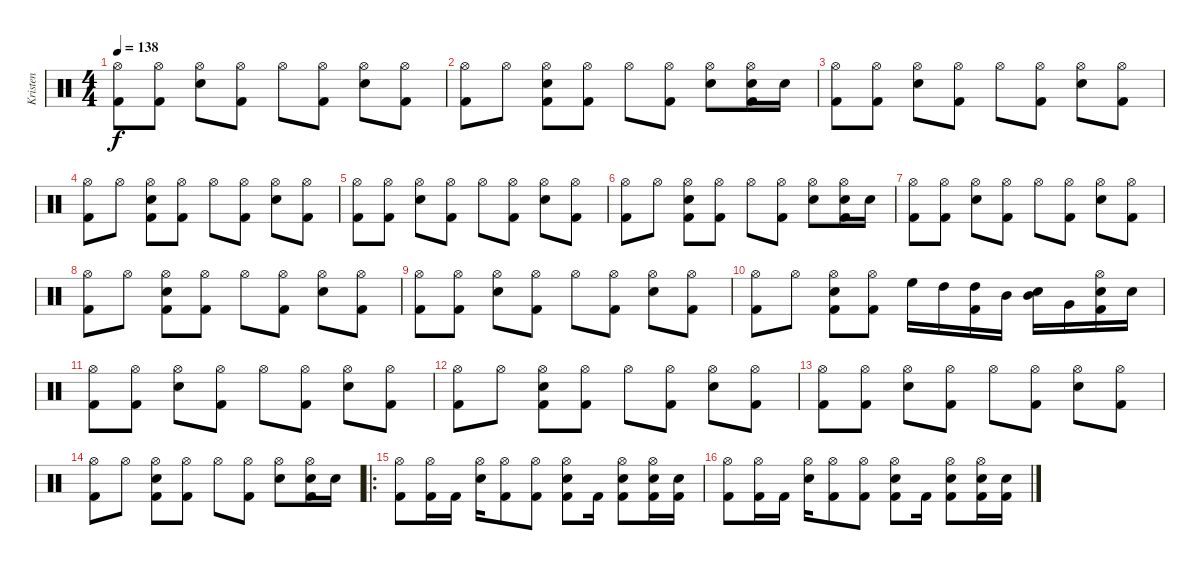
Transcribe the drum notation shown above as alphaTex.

\track ("Kristen" "Kristen") {instrument percussion}
\staff {score}
\articulation defaults
\ts (4 4)
\tempo 138
\clef neutral
\ks c
("Hi-Hat (open)" "Kick (hit) 2").8{dy f} ("Hi-Hat (open)" "Kick (hit) 2").8 ("Hi-Hat (open)" "Snare (hit) 2").8 ("Hi-Hat (open)" "Kick (hit) 2").8 "Hi-Hat (open)".8 ("Hi-Hat (open)" "Kick (hit) 2").8 ("Hi-Hat (open)" "Snare (hit) 2").8 ("Hi-Hat (open)" "Kick (hit) 2").8 |
("Hi-Hat (open)" "Kick (hit) 2").8 "Hi-Hat (open)".8 ("Hi-Hat (open)" "Snare (hit) 2" "Kick (hit) 2").8 ("Hi-Hat (open)" "Kick (hit) 2").8 "Hi-Hat (open)".8 ("Hi-Hat (open)" "Kick (hit) 2").8 ("Hi-Hat (open)" "Snare (hit) 2").8 ("Hi-Hat (open)" "Snare (hit) 2" "Kick (hit) 2").16 "Snare (hit) 2".16 |
("Hi-Hat (open)" "Kick (hit) 2").8 ("Hi-Hat (open)" "Kick (hit) 2").8 ("Hi-Hat (open)" "Snare (hit) 2").8 ("Hi-Hat (open)" "Kick (hit) 2").8 "Hi-Hat (open)".8 ("Hi-Hat (open)" "Kick (hit) 2").8 ("Hi-Hat (open)" "Snare (hit) 2").8 ("Hi-Hat (open)" "Kick (hit) 2").8 |
("Hi-Hat (open)" "Kick (hit) 2").8 "Hi-Hat (open)".8 ("Hi-Hat (open)" "Snare (hit) 2" "Kick (hit) 2").8 ("Hi-Hat (open)" "Kick (hit) 2").8 "Hi-Hat (open)".8 ("Hi-Hat (open)" "Kick (hit) 2").8 ("Hi-Hat (open)" "Snare (hit) 2").8 ("Hi-Hat (open)" "Kick (hit) 2").8 |
("Hi-Hat (open)" "Kick (hit) 2").8 ("Hi-Hat (open)" "Kick (hit) 2").8 ("Hi-Hat (open)" "Snare (hit) 2").8 ("Hi-Hat (open)" "Kick (hit) 2").8 "Hi-Hat (open)".8 ("Hi-Hat (open)" "Kick (hit) 2").8 ("Hi-Hat (open)" "Snare (hit) 2").8 ("Hi-Hat (open)" "Kick (hit) 2").8 |
("Hi-Hat (open)" "Kick (hit) 2").8 "Hi-Hat (open)".8 ("Hi-Hat (open)" "Snare (hit) 2" "Kick (hit) 2").8 ("Hi-Hat (open)" "Kick (hit) 2").8 "Hi-Hat (open)".8 ("Hi-Hat (open)" "Kick (hit) 2").8 ("Hi-Hat (open)" "Snare (hit) 2").8 ("Hi-Hat (open)" "Snare (hit) 2" "Kick (hit) 2").16 "Snare (hit) 2".16 |
("Hi-Hat (open)" "Kick (hit) 2").8 ("Hi-Hat (open)" "Kick (hit) 2").8 ("Hi-Hat (open)" "Snare (hit) 2").8 ("Hi-Hat (open)" "Kick (hit) 2").8 "Hi-Hat (open)".8 ("Hi-Hat (open)" "Kick (hit) 2").8 ("Hi-Hat (open)" "Snare (hit) 2").8 ("Hi-Hat (open)" "Kick (hit) 2").8 |
("Hi-Hat (open)" "Kick (hit) 2").8 "Hi-Hat (open)".8 ("Hi-Hat (open)" "Snare (hit) 2" "Kick (hit) 2").8 ("Hi-Hat (open)" "Kick (hit) 2").8 "Hi-Hat (open)".8 ("Hi-Hat (open)" "Kick (hit) 2").8 ("Hi-Hat (open)" "Snare (hit) 2").8 ("Hi-Hat (open)" "Kick (hit) 2").8 |
("Hi-Hat (open)" "Kick (hit) 2").8 ("Hi-Hat (open)" "Kick (hit) 2").8 ("Hi-Hat (open)" "Snare (hit) 2").8 ("Hi-Hat (open)" "Kick (hit) 2").8 "Hi-Hat (open)".8 ("Hi-Hat (open)" "Kick (hit) 2").8 ("Hi-Hat (open)" "Snare (hit) 2").8 ("Hi-Hat (open)" "Kick (hit) 2").8 |
("Hi-Hat (open)" "Kick (hit) 2").8 "Hi-Hat (open)".8 ("Hi-Hat (open)" "Snare (hit) 2" "Kick (hit) 2").8 ("Hi-Hat (open)" "Kick (hit) 2").8 "High Floor Tom (hit)".16 "High Tom (hit)".16 ("High Tom (hit)" "Kick (hit) 2").16 "Mid Tom (hit)".16 ("Mid Tom (hit)" "Snare (hit) 2").16 "Very Low Tom (hit)".16 ("Hi-Hat (open)" "Snare (hit) 2" "Kick (hit) 2").16 "Snare (hit) 2".16 |
("Hi-Hat (open)" "Kick (hit) 2").8 ("Hi-Hat (open)" "Kick (hit) 2").8 ("Hi-Hat (open)" "Snare (hit) 2").8 ("Hi-Hat (open)" "Kick (hit) 2").8 "Hi-Hat (open)".8 ("Hi-Hat (open)" "Kick (hit) 2").8 ("Hi-Hat (open)" "Snare (hit) 2").8 ("Hi-Hat (open)" "Kick (hit) 2").8 |
("Hi-Hat (open)" "Kick (hit) 2").8 "Hi-Hat (open)".8 ("Hi-Hat (open)" "Snare (hit) 2" "Kick (hit) 2").8 ("Hi-Hat (open)" "Kick (hit) 2").8 "Hi-Hat (open)".8 ("Hi-Hat (open)" "Kick (hit) 2").8 ("Hi-Hat (open)" "Snare (hit) 2").8 ("Hi-Hat (open)" "Kick (hit) 2").8 |
("Hi-Hat (open)" "Kick (hit) 2").8 ("Hi-Hat (open)" "Kick (hit) 2").8 ("Hi-Hat (open)" "Snare (hit) 2").8 ("Hi-Hat (open)" "Kick (hit) 2").8 "Hi-Hat (open)".8 ("Hi-Hat (open)" "Kick (hit) 2").8 ("Hi-Hat (open)" "Snare (hit) 2").8 ("Hi-Hat (open)" "Kick (hit) 2").8 |
("Hi-Hat (open)" "Kick (hit) 2").8 "Hi-Hat (open)".8 ("Hi-Hat (open)" "Snare (hit) 2" "Kick (hit) 2").8 ("Hi-Hat (open)" "Kick (hit) 2").8 "Hi-Hat (open)".8 ("Hi-Hat (open)" "Kick (hit) 2").8 ("Hi-Hat (open)" "Snare (hit) 2").8 ("Hi-Hat (open)" "Snare (hit) 2" "Kick (hit) 2").16 "Snare (hit) 2".16 |
\ro
("Hi-Hat (open)" "Kick (hit) 2").8 ("Hi-Hat (open)" "Kick (hit) 2").16 "Kick (hit) 2".16 ("Hi-Hat (open)" "Snare (hit) 2").16 ("Hi-Hat (open)" "Kick (hit) 2").8 ("Hi-Hat (open)" "Kick (hit) 2").8 ("Hi-Hat (open)" "Snare (hit) 2" "Kick (hit) 2").8 "Kick (hit) 2".16 ("Hi-Hat (open)" "Snare (hit) 2" "Kick (hit) 2").8 ("Hi-Hat (open)" "Snare (hit) 2" "Kick (hit) 2").16 ("Snare (hit) 2" "Kick (hit) 2").16 |
("Hi-Hat (open)" "Kick (hit) 2").8 ("Hi-Hat (open)" "Kick (hit) 2").16 "Kick (hit) 2".16 ("Hi-Hat (open)" "Snare (hit) 2").16 ("Hi-Hat (open)" "Kick (hit) 2").8 ("Hi-Hat (open)" "Kick (hit) 2").8 ("Hi-Hat (open)" "Snare (hit) 2" "Kick (hit) 2").8 "Kick (hit) 2".16 ("Hi-Hat (open)" "Snare (hit) 2" "Kick (hit) 2").8 ("Hi-Hat (open)" "Snare (hit) 2" "Kick (hit) 2").16 ("Snare (hit) 2" "Kick (hit) 2").16
